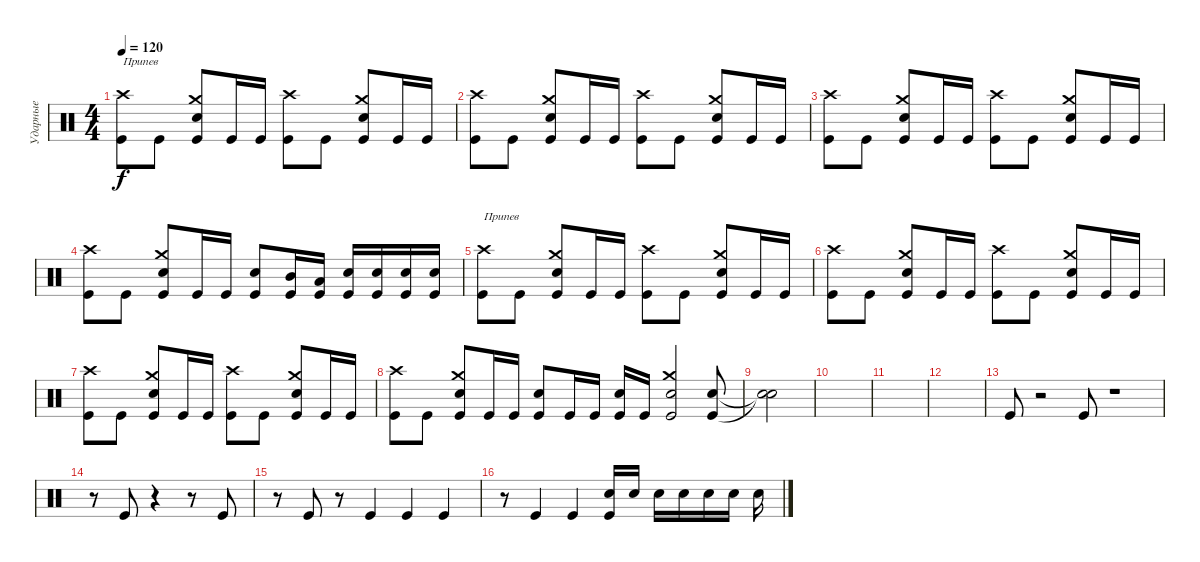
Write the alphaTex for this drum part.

\track ("Ударные" "Ударные") {instrument percussion}
\staff {score}
\articulation defaults
\ts (4 4)
\tempo 120
\clef neutral
\ks c
("Crash high (hit)" "Kick (hit)").8{txt "Припев" dy f} "Kick (hit)".8 ("Crash medium (hit)" "Snare (hit) 2" "Kick (hit)").8 "Kick (hit)".16 "Kick (hit)".16 ("Crash high (hit)" "Kick (hit)").8 "Kick (hit)".8 ("Crash medium (hit)" "Snare (hit) 2" "Kick (hit)").8 "Kick (hit)".16 "Kick (hit)".16 |
("Crash high (hit)" "Kick (hit)").8 "Kick (hit)".8 ("Crash medium (hit)" "Snare (hit) 2" "Kick (hit)").8 "Kick (hit)".16 "Kick (hit)".16 ("Crash high (hit)" "Kick (hit)").8 "Kick (hit)".8 ("Crash medium (hit)" "Snare (hit) 2" "Kick (hit)").8 "Kick (hit)".16 "Kick (hit)".16 |
("Crash high (hit)" "Kick (hit)").8 "Kick (hit)".8 ("Crash medium (hit)" "Snare (hit) 2" "Kick (hit)").8 "Kick (hit)".16 "Kick (hit)".16 ("Crash high (hit)" "Kick (hit)").8 "Kick (hit)".8 ("Crash medium (hit)" "Snare (hit) 2" "Kick (hit)").8 "Kick (hit)".16 "Kick (hit)".16 |
("Crash high (hit)" "Kick (hit)").8 "Kick (hit)".8 ("Crash medium (hit)" "Snare (hit) 2" "Kick (hit)").8 "Kick (hit)".16 "Kick (hit)".16 ("Snare (hit) 2" "Kick (hit)").8 ("Mid Tom (hit)" "Kick (hit)").16 ("Low Tom (hit)" "Kick (hit)").16 ("Snare (hit) 2" "Kick (hit)").16 ("Snare (hit) 2" "Kick (hit)").16 ("Snare (hit) 2" "Kick (hit)").16 ("Snare (hit) 2" "Kick (hit)").16 |
("Crash high (hit)" "Kick (hit)").8{txt "Припев"} "Kick (hit)".8 ("Crash medium (hit)" "Snare (hit) 2" "Kick (hit)").8 "Kick (hit)".16 "Kick (hit)".16 ("Crash high (hit)" "Kick (hit)").8 "Kick (hit)".8 ("Crash medium (hit)" "Snare (hit) 2" "Kick (hit)").8 "Kick (hit)".16 "Kick (hit)".16 |
("Crash high (hit)" "Kick (hit)").8 "Kick (hit)".8 ("Crash medium (hit)" "Snare (hit) 2" "Kick (hit)").8 "Kick (hit)".16 "Kick (hit)".16 ("Crash high (hit)" "Kick (hit)").8 "Kick (hit)".8 ("Crash medium (hit)" "Snare (hit) 2" "Kick (hit)").8 "Kick (hit)".16 "Kick (hit)".16 |
("Crash high (hit)" "Kick (hit)").8 "Kick (hit)".8 ("Crash medium (hit)" "Snare (hit) 2" "Kick (hit)").8 "Kick (hit)".16 "Kick (hit)".16 ("Crash high (hit)" "Kick (hit)").8 "Kick (hit)".8 ("Crash medium (hit)" "Snare (hit) 2" "Kick (hit)").8 "Kick (hit)".16 "Kick (hit)".16 |
("Crash high (hit)" "Kick (hit)").8 "Kick (hit)".8 ("Crash medium (hit)" "Snare (hit) 2" "Kick (hit)").8 "Kick (hit)".16 "Kick (hit)".16 ("Snare (hit) 2" "Kick (hit)").8 "Kick (hit)".16 "Kick (hit)".16 ("Snare (hit) 2" "Kick (hit)").16 "Kick (hit)".16 ("Crash medium (hit)" "Snare (hit) 2" "Kick (hit)").2 ("Snare (hit) 2" "Kick (hit)").8 |
("Snare (hit)"{t} "Snare (hit)"{t}).2 |
|
|
|
"Kick (hit)".8 r.2 "Kick (hit)".8 r.1 |
r.8 "Kick (hit)".8 r.4 r.8 "Kick (hit)".8 |
r.8 "Kick (hit)".8 r.8 "Kick (hit)".4 "Kick (hit)".4 "Kick (hit)".4 |
r.8 "Kick (hit)".4 "Kick (hit)".4 ("Snare (hit) 2" "Kick (hit)").16 "Snare (hit) 2".16 "Snare (hit) 2".16 "Snare (hit) 2".16 "Snare (hit) 2".16 "Snare (hit) 2".16 "Snare (hit) 2".16
